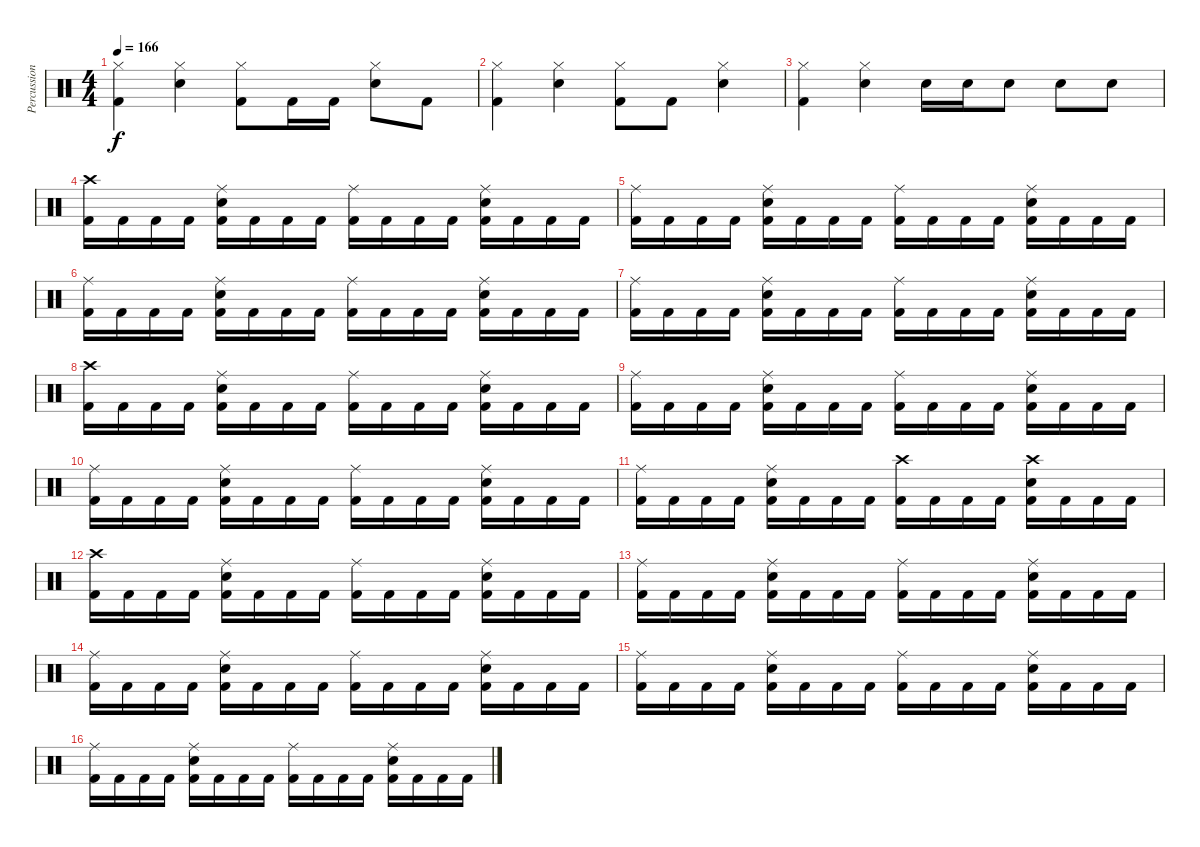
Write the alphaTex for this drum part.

\track ("Percussion" "Percussion") {solo instrument percussion}
\staff {score}
\articulation defaults
\ts (4 4)
\tempo 166
\clef neutral
\ks aminor
("Hi-Hat (closed)" "Kick (hit) 2").4{dy f} ("Hi-Hat (closed)" "Snare (hit) 2").4 ("Hi-Hat (closed)" "Kick (hit) 2").8 "Kick (hit) 2".16 "Kick (hit) 2".16 ("Hi-Hat (closed)" "Snare (hit) 2").8 "Kick (hit) 2".8 |
("Hi-Hat (closed)" "Kick (hit) 2").4 ("Hi-Hat (closed)" "Snare (hit) 2").4 ("Hi-Hat (closed)" "Kick (hit) 2").8 "Kick (hit) 2".8 ("Hi-Hat (closed)" "Snare (hit) 2").4 |
("Hi-Hat (closed)" "Kick (hit) 2").4 ("Hi-Hat (closed)" "Snare (hit) 2").4 "Snare (hit) 2".16 "Snare (hit) 2".16 "Snare (hit) 2".8 "Snare (hit) 2".8 "Snare (hit) 2".8 |
\ks c
("Crash high (hit)" "Kick (hit) 2").16 "Kick (hit) 2".16 "Kick (hit) 2".16 "Kick (hit) 2".16 ("Ride (middle)" "Snare (hit) 2" "Kick (hit) 2").16 "Kick (hit) 2".16 "Kick (hit) 2".16 "Kick (hit) 2".16 ("Ride (middle)" "Kick (hit) 2").16 "Kick (hit) 2".16 "Kick (hit) 2".16 "Kick (hit) 2".16 ("Snare (hit) 2" "Ride (middle)" "Kick (hit) 2").16 "Kick (hit) 2".16 "Kick (hit) 2".16 "Kick (hit) 2".16 |
("Ride (middle)" "Kick (hit) 2").16 "Kick (hit) 2".16 "Kick (hit) 2".16 "Kick (hit) 2".16 ("Snare (hit) 2" "Ride (middle)" "Kick (hit) 2").16 "Kick (hit) 2".16 "Kick (hit) 2".16 "Kick (hit) 2".16 ("Ride (middle)" "Kick (hit) 2").16 "Kick (hit) 2".16 "Kick (hit) 2".16 "Kick (hit) 2".16 ("Snare (hit) 2" "Ride (middle)" "Kick (hit) 2").16 "Kick (hit) 2".16 "Kick (hit) 2".16 "Kick (hit) 2".16 |
("Ride (middle)" "Kick (hit) 2").16 "Kick (hit) 2".16 "Kick (hit) 2".16 "Kick (hit) 2".16 ("Snare (hit) 2" "Ride (middle)" "Kick (hit) 2").16 "Kick (hit) 2".16 "Kick (hit) 2".16 "Kick (hit) 2".16 ("Ride (middle)" "Kick (hit) 2").16 "Kick (hit) 2".16 "Kick (hit) 2".16 "Kick (hit) 2".16 ("Snare (hit) 2" "Ride (middle)" "Kick (hit) 2").16 "Kick (hit) 2".16 "Kick (hit) 2".16 "Kick (hit) 2".16 |
("Ride (middle)" "Kick (hit) 2").16 "Kick (hit) 2".16 "Kick (hit) 2".16 "Kick (hit) 2".16 ("Snare (hit) 2" "Ride (middle)" "Kick (hit) 2").16 "Kick (hit) 2".16 "Kick (hit) 2".16 "Kick (hit) 2".16 ("Ride (middle)" "Kick (hit) 2").16 "Kick (hit) 2".16 "Kick (hit) 2".16 "Kick (hit) 2".16 ("Snare (hit) 2" "Ride (middle)" "Kick (hit) 2").16 "Kick (hit) 2".16 "Kick (hit) 2".16 "Kick (hit) 2".16 |
("Crash high (hit)" "Kick (hit) 2").16 "Kick (hit) 2".16 "Kick (hit) 2".16 "Kick (hit) 2".16 ("Snare (hit) 2" "Ride (middle)" "Kick (hit) 2").16 "Kick (hit) 2".16 "Kick (hit) 2".16 "Kick (hit) 2".16 ("Ride (middle)" "Kick (hit) 2").16 "Kick (hit) 2".16 "Kick (hit) 2".16 "Kick (hit) 2".16 ("Snare (hit) 2" "Ride (middle)" "Kick (hit) 2").16 "Kick (hit) 2".16 "Kick (hit) 2".16 "Kick (hit) 2".16 |
("Ride (middle)" "Kick (hit) 2").16 "Kick (hit) 2".16 "Kick (hit) 2".16 "Kick (hit) 2".16 ("Snare (hit) 2" "Ride (middle)" "Kick (hit) 2").16 "Kick (hit) 2".16 "Kick (hit) 2".16 "Kick (hit) 2".16 ("Ride (middle)" "Kick (hit) 2").16 "Kick (hit) 2".16 "Kick (hit) 2".16 "Kick (hit) 2".16 ("Snare (hit) 2" "Ride (middle)" "Kick (hit) 2").16 "Kick (hit) 2".16 "Kick (hit) 2".16 "Kick (hit) 2".16 |
("Ride (middle)" "Kick (hit) 2").16 "Kick (hit) 2".16 "Kick (hit) 2".16 "Kick (hit) 2".16 ("Snare (hit) 2" "Ride (middle)" "Kick (hit) 2").16 "Kick (hit) 2".16 "Kick (hit) 2".16 "Kick (hit) 2".16 ("Ride (middle)" "Kick (hit) 2").16 "Kick (hit) 2".16 "Kick (hit) 2".16 "Kick (hit) 2".16 ("Snare (hit) 2" "Ride (middle)" "Kick (hit) 2").16 "Kick (hit) 2".16 "Kick (hit) 2".16 "Kick (hit) 2".16 |
("Ride (middle)" "Kick (hit) 2").16 "Kick (hit) 2".16 "Kick (hit) 2".16 "Kick (hit) 2".16 ("Ride (middle)" "Snare (hit) 2" "Kick (hit) 2").16 "Kick (hit) 2".16 "Kick (hit) 2".16 "Kick (hit) 2".16 ("Crash high (hit)" "Kick (hit) 2").16 "Kick (hit) 2".16 "Kick (hit) 2".16 "Kick (hit) 2".16 ("Snare (hit) 2" "Crash high (hit)" "Kick (hit) 2").16 "Kick (hit) 2".16 "Kick (hit) 2".16 "Kick (hit) 2".16 |
("Crash high (hit)" "Kick (hit) 2").16 "Kick (hit) 2".16 "Kick (hit) 2".16 "Kick (hit) 2".16 ("Snare (hit) 2" "Ride (middle)" "Kick (hit) 2").16 "Kick (hit) 2".16 "Kick (hit) 2".16 "Kick (hit) 2".16 ("Ride (middle)" "Kick (hit) 2").16 "Kick (hit) 2".16 "Kick (hit) 2".16 "Kick (hit) 2".16 ("Snare (hit) 2" "Ride (middle)" "Kick (hit) 2").16 "Kick (hit) 2".16 "Kick (hit) 2".16 "Kick (hit) 2".16 |
("Ride (middle)" "Kick (hit) 2").16 "Kick (hit) 2".16 "Kick (hit) 2".16 "Kick (hit) 2".16 ("Snare (hit) 2" "Ride (middle)" "Kick (hit) 2").16 "Kick (hit) 2".16 "Kick (hit) 2".16 "Kick (hit) 2".16 ("Ride (middle)" "Kick (hit) 2").16 "Kick (hit) 2".16 "Kick (hit) 2".16 "Kick (hit) 2".16 ("Snare (hit) 2" "Ride (middle)" "Kick (hit) 2").16 "Kick (hit) 2".16 "Kick (hit) 2".16 "Kick (hit) 2".16 |
("Ride (middle)" "Kick (hit) 2").16 "Kick (hit) 2".16 "Kick (hit) 2".16 "Kick (hit) 2".16 ("Snare (hit) 2" "Ride (middle)" "Kick (hit) 2").16 "Kick (hit) 2".16 "Kick (hit) 2".16 "Kick (hit) 2".16 ("Ride (middle)" "Kick (hit) 2").16 "Kick (hit) 2".16 "Kick (hit) 2".16 "Kick (hit) 2".16 ("Snare (hit) 2" "Ride (middle)" "Kick (hit) 2").16 "Kick (hit) 2".16 "Kick (hit) 2".16 "Kick (hit) 2".16 |
("Ride (middle)" "Kick (hit) 2").16 "Kick (hit) 2".16 "Kick (hit) 2".16 "Kick (hit) 2".16 ("Snare (hit) 2" "Ride (middle)" "Kick (hit) 2").16 "Kick (hit) 2".16 "Kick (hit) 2".16 "Kick (hit) 2".16 ("Ride (middle)" "Kick (hit) 2").16 "Kick (hit) 2".16 "Kick (hit) 2".16 "Kick (hit) 2".16 ("Snare (hit) 2" "Ride (middle)" "Kick (hit) 2").16 "Kick (hit) 2".16 "Kick (hit) 2".16 "Kick (hit) 2".16 |
("Ride (middle)" "Kick (hit) 2").16 "Kick (hit) 2".16 "Kick (hit) 2".16 "Kick (hit) 2".16 ("Snare (hit) 2" "Ride (middle)" "Kick (hit) 2").16 "Kick (hit) 2".16 "Kick (hit) 2".16 "Kick (hit) 2".16 ("Ride (middle)" "Kick (hit) 2").16 "Kick (hit) 2".16 "Kick (hit) 2".16 "Kick (hit) 2".16 ("Snare (hit) 2" "Ride (middle)" "Kick (hit) 2").16 "Kick (hit) 2".16 "Kick (hit) 2".16 "Kick (hit) 2".16
